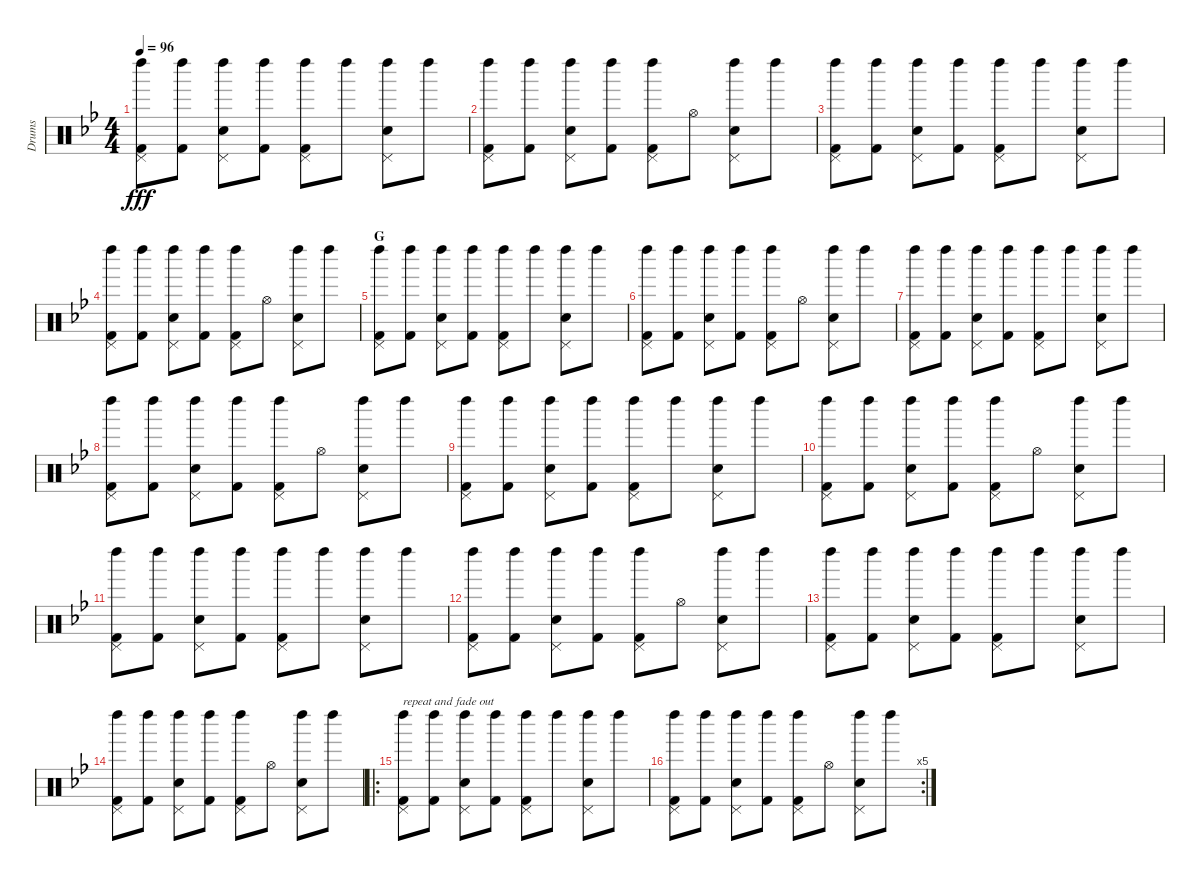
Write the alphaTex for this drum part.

\track ("Drums" "Drums") {instrument percussion}
\staff {score}
\articulation defaults
\ts (4 4)
\tempo 96
\clef neutral
\ks bb
("Left Maraca (hit)" "Pedal Hi-Hat (hit)" "Kick (hit) 2").8{dy fff} ("Left Maraca (hit)" "Kick (hit) 2").8 ("Left Maraca (hit)" "Pedal Hi-Hat (hit)" "Snare (hit) 2").8 ("Left Maraca (hit)" "Kick (hit) 2").8 ("Left Maraca (hit)" "Pedal Hi-Hat (hit)" "Kick (hit) 2").8 "Left Maraca (hit)".8 ("Left Maraca (hit)" "Pedal Hi-Hat (hit)" "Snare (hit) 2").8 "Left Maraca (hit)".8 |
("Left Maraca (hit)" "Pedal Hi-Hat (hit)" "Kick (hit) 2").8 ("Left Maraca (hit)" "Kick (hit) 2").8 ("Left Maraca (hit)" "Pedal Hi-Hat (hit)" "Snare (hit) 2").8 ("Left Maraca (hit)" "Kick (hit) 2").8 ("Left Maraca (hit)" "Pedal Hi-Hat (hit)" "Kick (hit) 2").8 "Hi-Hat (open)".8 ("Left Maraca (hit)" "Pedal Hi-Hat (hit)" "Snare (hit) 2").8 "Left Maraca (hit)".8 |
("Left Maraca (hit)" "Pedal Hi-Hat (hit)" "Kick (hit) 2").8 ("Left Maraca (hit)" "Kick (hit) 2").8 ("Left Maraca (hit)" "Pedal Hi-Hat (hit)" "Snare (hit) 2").8 ("Left Maraca (hit)" "Kick (hit) 2").8 ("Left Maraca (hit)" "Pedal Hi-Hat (hit)" "Kick (hit) 2").8 "Left Maraca (hit)".8 ("Left Maraca (hit)" "Pedal Hi-Hat (hit)" "Snare (hit) 2").8 "Left Maraca (hit)".8 |
("Left Maraca (hit)" "Pedal Hi-Hat (hit)" "Kick (hit) 2").8 ("Left Maraca (hit)" "Kick (hit) 2").8 ("Left Maraca (hit)" "Pedal Hi-Hat (hit)" "Snare (hit) 2").8 ("Left Maraca (hit)" "Kick (hit) 2").8 ("Left Maraca (hit)" "Pedal Hi-Hat (hit)" "Kick (hit) 2").8 "Hi-Hat (open)".8 ("Left Maraca (hit)" "Pedal Hi-Hat (hit)" "Snare (hit) 2").8 "Left Maraca (hit)".8 |
\section ("" "G")
("Left Maraca (hit)" "Pedal Hi-Hat (hit)" "Kick (hit) 2").8 ("Left Maraca (hit)" "Kick (hit) 2").8 ("Left Maraca (hit)" "Pedal Hi-Hat (hit)" "Snare (hit) 2").8 ("Left Maraca (hit)" "Kick (hit) 2").8 ("Left Maraca (hit)" "Pedal Hi-Hat (hit)" "Kick (hit) 2").8 "Left Maraca (hit)".8 ("Left Maraca (hit)" "Pedal Hi-Hat (hit)" "Snare (hit) 2").8 "Left Maraca (hit)".8 |
("Left Maraca (hit)" "Pedal Hi-Hat (hit)" "Kick (hit) 2").8 ("Left Maraca (hit)" "Kick (hit) 2").8 ("Left Maraca (hit)" "Pedal Hi-Hat (hit)" "Snare (hit) 2").8 ("Left Maraca (hit)" "Kick (hit) 2").8 ("Left Maraca (hit)" "Pedal Hi-Hat (hit)" "Kick (hit) 2").8 "Hi-Hat (open)".8 ("Left Maraca (hit)" "Pedal Hi-Hat (hit)" "Snare (hit) 2").8 "Left Maraca (hit)".8 |
("Left Maraca (hit)" "Pedal Hi-Hat (hit)" "Kick (hit) 2").8 ("Left Maraca (hit)" "Kick (hit) 2").8 ("Left Maraca (hit)" "Pedal Hi-Hat (hit)" "Snare (hit) 2").8 ("Left Maraca (hit)" "Kick (hit) 2").8 ("Left Maraca (hit)" "Pedal Hi-Hat (hit)" "Kick (hit) 2").8 "Left Maraca (hit)".8 ("Left Maraca (hit)" "Pedal Hi-Hat (hit)" "Snare (hit) 2").8 "Left Maraca (hit)".8 |
("Left Maraca (hit)" "Pedal Hi-Hat (hit)" "Kick (hit) 2").8 ("Left Maraca (hit)" "Kick (hit) 2").8 ("Left Maraca (hit)" "Pedal Hi-Hat (hit)" "Snare (hit) 2").8 ("Left Maraca (hit)" "Kick (hit) 2").8 ("Left Maraca (hit)" "Pedal Hi-Hat (hit)" "Kick (hit) 2").8 "Hi-Hat (open)".8 ("Left Maraca (hit)" "Pedal Hi-Hat (hit)" "Snare (hit) 2").8 "Left Maraca (hit)".8 |
("Left Maraca (hit)" "Pedal Hi-Hat (hit)" "Kick (hit) 2").8 ("Left Maraca (hit)" "Kick (hit) 2").8 ("Left Maraca (hit)" "Pedal Hi-Hat (hit)" "Snare (hit) 2").8 ("Left Maraca (hit)" "Kick (hit) 2").8 ("Left Maraca (hit)" "Pedal Hi-Hat (hit)" "Kick (hit) 2").8 "Left Maraca (hit)".8 ("Left Maraca (hit)" "Pedal Hi-Hat (hit)" "Snare (hit) 2").8 "Left Maraca (hit)".8 |
("Left Maraca (hit)" "Pedal Hi-Hat (hit)" "Kick (hit) 2").8 ("Left Maraca (hit)" "Kick (hit) 2").8 ("Left Maraca (hit)" "Pedal Hi-Hat (hit)" "Snare (hit) 2").8 ("Left Maraca (hit)" "Kick (hit) 2").8 ("Left Maraca (hit)" "Pedal Hi-Hat (hit)" "Kick (hit) 2").8 "Hi-Hat (open)".8 ("Left Maraca (hit)" "Pedal Hi-Hat (hit)" "Snare (hit) 2").8 "Left Maraca (hit)".8 |
("Left Maraca (hit)" "Pedal Hi-Hat (hit)" "Kick (hit) 2").8 ("Left Maraca (hit)" "Kick (hit) 2").8 ("Left Maraca (hit)" "Pedal Hi-Hat (hit)" "Snare (hit) 2").8 ("Left Maraca (hit)" "Kick (hit) 2").8 ("Left Maraca (hit)" "Pedal Hi-Hat (hit)" "Kick (hit) 2").8 "Left Maraca (hit)".8 ("Left Maraca (hit)" "Pedal Hi-Hat (hit)" "Snare (hit) 2").8 "Left Maraca (hit)".8 |
("Left Maraca (hit)" "Pedal Hi-Hat (hit)" "Kick (hit) 2").8 ("Left Maraca (hit)" "Kick (hit) 2").8 ("Left Maraca (hit)" "Pedal Hi-Hat (hit)" "Snare (hit) 2").8 ("Left Maraca (hit)" "Kick (hit) 2").8 ("Left Maraca (hit)" "Pedal Hi-Hat (hit)" "Kick (hit) 2").8 "Hi-Hat (open)".8 ("Left Maraca (hit)" "Pedal Hi-Hat (hit)" "Snare (hit) 2").8 "Left Maraca (hit)".8 |
("Left Maraca (hit)" "Pedal Hi-Hat (hit)" "Kick (hit) 2").8 ("Left Maraca (hit)" "Kick (hit) 2").8 ("Left Maraca (hit)" "Pedal Hi-Hat (hit)" "Snare (hit) 2").8 ("Left Maraca (hit)" "Kick (hit) 2").8 ("Left Maraca (hit)" "Pedal Hi-Hat (hit)" "Kick (hit) 2").8 "Left Maraca (hit)".8 ("Left Maraca (hit)" "Pedal Hi-Hat (hit)" "Snare (hit) 2").8 "Left Maraca (hit)".8 |
("Left Maraca (hit)" "Pedal Hi-Hat (hit)" "Kick (hit) 2").8 ("Left Maraca (hit)" "Kick (hit) 2").8 ("Left Maraca (hit)" "Pedal Hi-Hat (hit)" "Snare (hit) 2").8 ("Left Maraca (hit)" "Kick (hit) 2").8 ("Left Maraca (hit)" "Pedal Hi-Hat (hit)" "Kick (hit) 2").8 "Hi-Hat (open)".8 ("Left Maraca (hit)" "Pedal Hi-Hat (hit)" "Snare (hit) 2").8 "Left Maraca (hit)".8 |
\ro
("Left Maraca (hit)" "Pedal Hi-Hat (hit)" "Kick (hit) 2").8{txt "repeat and fade out"} ("Left Maraca (hit)" "Kick (hit) 2").8 ("Left Maraca (hit)" "Pedal Hi-Hat (hit)" "Snare (hit) 2").8 ("Left Maraca (hit)" "Kick (hit) 2").8 ("Left Maraca (hit)" "Pedal Hi-Hat (hit)" "Kick (hit) 2").8 "Left Maraca (hit)".8 ("Left Maraca (hit)" "Pedal Hi-Hat (hit)" "Snare (hit) 2").8 "Left Maraca (hit)".8 |
\rc 5
("Left Maraca (hit)" "Pedal Hi-Hat (hit)" "Kick (hit) 2").8 ("Left Maraca (hit)" "Kick (hit) 2").8 ("Left Maraca (hit)" "Pedal Hi-Hat (hit)" "Snare (hit) 2").8 ("Left Maraca (hit)" "Kick (hit) 2").8 ("Left Maraca (hit)" "Pedal Hi-Hat (hit)" "Kick (hit) 2").8 "Hi-Hat (open)".8 ("Left Maraca (hit)" "Pedal Hi-Hat (hit)" "Snare (hit) 2").8 "Left Maraca (hit)".8
